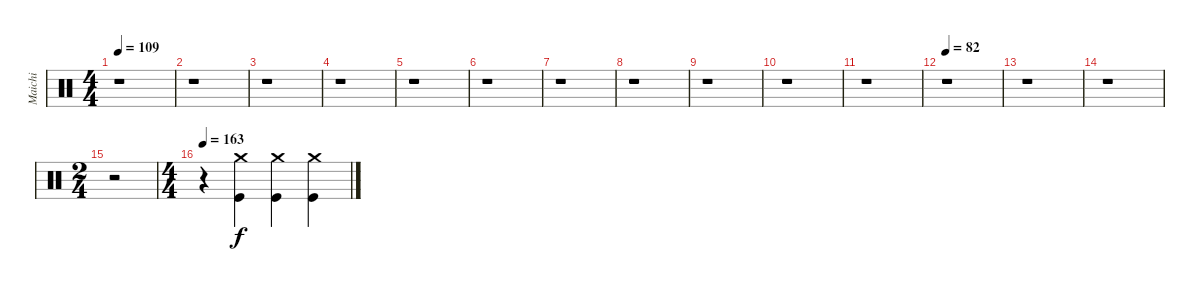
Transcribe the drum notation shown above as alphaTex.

\track ("Maichi" "Maichi") {instrument percussion}
\staff {score}
\articulation defaults
\ts (4 4)
\tempo 109
\clef neutral
\ks c
r.1{dy f} |
r.1 |
r.1 |
r.1 |
r.1 |
r.1 |
r.1 |
r.1 |
r.1 |
r.1 |
r.1 |
\tempo 82
r.1 |
r.1 |
r.1 |
\ts (2 4)
r.2 |
\ts (4 4)
\tempo 163
r.4 ("Crash medium (hit)" "Kick (hit)").4 ("Kick (hit)" "Crash medium (hit)").4 ("Crash medium (hit)" "Kick (hit)").4
